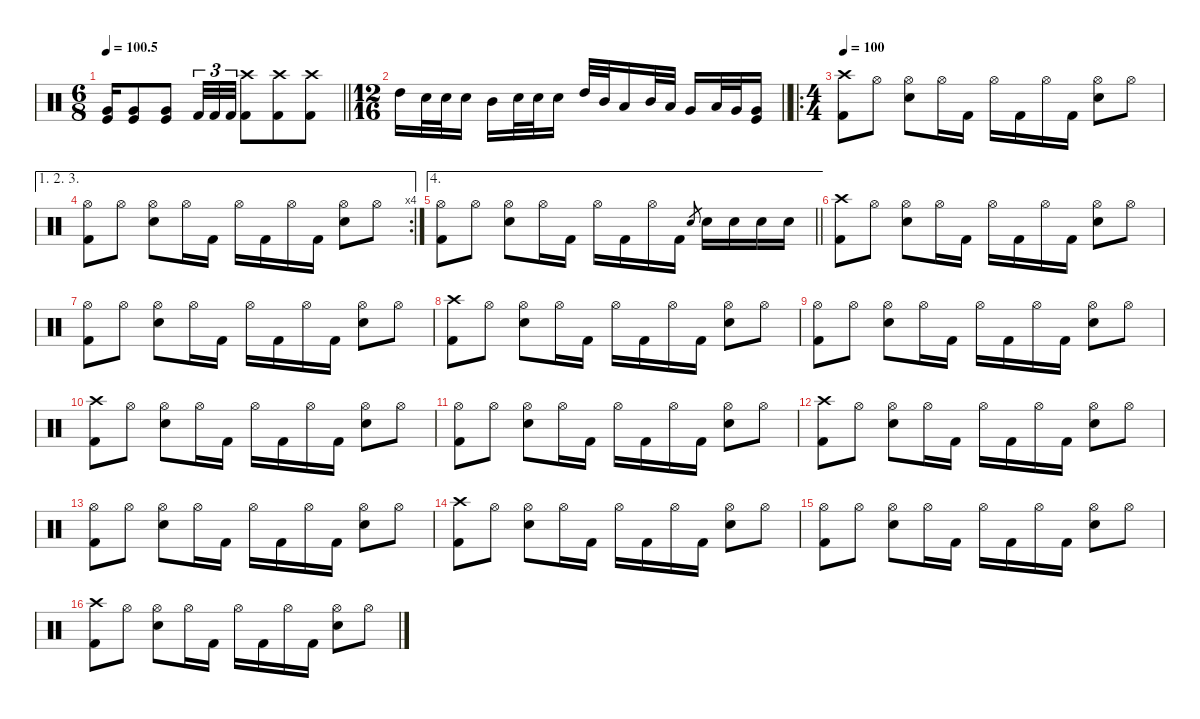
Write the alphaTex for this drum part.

\defaultSystemsLayout 4
\hideDynamics
\bracketExtendMode nobrackets
\singleTrackTrackNamePolicy hidden
\multiTrackTrackNamePolicy hidden
\firstSystemTrackNameMode fullname
\firstSystemTrackNameOrientation horizontal
\otherSystemsTrackNameOrientation horizontal
\track ("Drums" "drm.") {instrument percussion}
\staff {score}
\articulation defaults
\ts (6 8)
\tempo
100.5
\accidentals auto
\clef neutral
\ottava regular
\simile none
\barLineRight lightlight
\ks c
("Very Low Tom (hit)" "Kick (hit)").16{dy ff beam Up} ("Very Low Tom (hit)" "Kick (hit)").8{beam Up} ("Very Low Tom (hit)" "Kick (hit)").8{beam Up} "Kick (hit) 2".32{tu (3 2) dy f beam Up} "Kick (hit) 2".32{tu (3 2) beam Up} "Kick (hit) 2".32{tu (3 2) beam Up} ("Crash high (hit)" "Kick (hit) 2").8{beam Down} ("Crash high (hit)" "Kick (hit) 2").8{beam Down} ("Crash high (hit)" "Kick (hit) 2").8{beam Down} |
\ts (12 16)
\beaming (8 3 3)
\barLineRight lightlight "High Tom (hit)".16{beam Down beam merge} "Snare (hit) 2".32{beam Down beam merge} "Snare (hit) 2".32{dy mf beam Down beam merge} "Snare (hit) 2".16{dy f beam Down beam split} "Mid Tom (hit)".16{dy ff beam Down beam merge} "Snare (hit) 2".32{dy f beam Down beam merge} "Snare (hit) 2".32{dy mf beam Down beam merge} "Snare (hit) 2".16{dy f beam Down} "High Tom (hit)".32{beam Up beam merge} "Mid Tom (hit)".32{dy mf beam Up beam merge} "Low Tom (hit)".16{dy f beam Up} "Mid Tom (hit)".32{beam Up beam merge} "Low Tom (hit)".32{dy mf beam Up beam split} "Very Low Tom (hit)".16{dy f beam Up beam merge} "Low Tom (hit)".32{beam Up beam merge} "Very Low Tom (hit)".32{dy mf beam Up beam merge}
("Very Low Tom (hit)" "Kick (hit)").16{beam Up} |
\ro
\ts (4 4)
\beaming (8 2 2 2 2)
\tempo 100
("Crash high (hit)" "Kick (hit) 2").8{dy f beam Down} "Hi-Hat (open)".8{beam Down} ("Hi-Hat (open)" "Snare (hit) 2").8{beam Down} "Hi-Hat (open)".16{beam Down} "Kick (hit) 2".16{beam Down} "Hi-Hat (open)".16{beam Down} "Kick (hit) 2".16{beam Down} "Hi-Hat (open)".16{beam Down} "Kick (hit) 2".16{beam Down} ("Hi-Hat (open)" "Snare (hit) 2").8{beam Down} "Hi-Hat (open)".8{beam Down} |
\ae (1 2 3)
\rc 4
("Hi-Hat (open)" "Kick (hit) 2").8{beam Down} "Hi-Hat (open)".8{beam Down} ("Hi-Hat (open)" "Snare (hit) 2").8{beam Down} "Hi-Hat (open)".16{beam Down} "Kick (hit) 2".16{beam Down} "Hi-Hat (open)".16{beam Down} "Kick (hit) 2".16{beam Down} "Hi-Hat (open)".16{beam Down} "Kick (hit) 2".16{beam Down} ("Hi-Hat (open)" "Snare (hit) 2").8{beam Down} "Hi-Hat (open)".8{beam Down} |
\ae 4
\barLineRight lightlight
("Hi-Hat (open)" "Kick (hit) 2").8{beam Down} "Hi-Hat (open)".8{beam Down} ("Hi-Hat (open)" "Snare (hit) 2").8{beam Down} "Hi-Hat (open)".16{beam Down} "Kick (hit) 2".16{beam Down} "Hi-Hat (open)".16{beam Down} "Kick (hit) 2".16{beam Down} "Hi-Hat (open)".16{beam Down} "Kick (hit) 2".16{beam Down} "Electric Snare (hit)".8{gr dy mf beam Up} "Snare (hit) 2".16{dy f beam Down} "Snare (hit) 2".16{beam Down} "Snare (hit) 2".16{beam Down} "Snare (hit) 2".16{beam Down} |
("Crash high (hit)" "Kick (hit) 2").8{beam Down} "Hi-Hat (open)".8{beam Down} ("Hi-Hat (open)" "Snare (hit) 2").8{beam Down} "Hi-Hat (open)".16{beam Down} "Kick (hit) 2".16{beam Down} "Hi-Hat (open)".16{beam Down} "Kick (hit) 2".16{beam Down} "Hi-Hat (open)".16{beam Down} "Kick (hit) 2".16{beam Down} ("Hi-Hat (open)" "Snare (hit) 2").8{beam Down} "Hi-Hat (open)".8{beam Down} |
("Hi-Hat (open)" "Kick (hit) 2").8{beam Down beam merge} "Hi-Hat (open)".8{beam Down beam split} ("Hi-Hat (open)" "Snare (hit) 2").8{beam Down beam merge} "Hi-Hat (open)".16{beam Down beam merge} "Kick (hit) 2".16{beam Down beam split} "Hi-Hat (open)".16{beam Down beam merge} "Kick (hit) 2".16{beam Down beam merge} "Hi-Hat (open)".16{beam Down beam merge} "Kick (hit) 2".16{beam Down beam split} ("Hi-Hat (open)" "Snare (hit) 2").8{beam Down beam merge} "Hi-Hat (open)".8{beam Down} |
("Crash high (hit)" "Kick (hit) 2").8{beam Down} "Hi-Hat (open)".8{beam Down} ("Hi-Hat (open)" "Snare (hit) 2").8{beam Down} "Hi-Hat (open)".16{beam Down} "Kick (hit) 2".16{beam Down} "Hi-Hat (open)".16{beam Down} "Kick (hit) 2".16{beam Down} "Hi-Hat (open)".16{beam Down} "Kick (hit) 2".16{beam Down} ("Hi-Hat (open)" "Snare (hit) 2").8{beam Down} "Hi-Hat (open)".8{beam Down} |
("Hi-Hat (open)" "Kick (hit) 2").8{beam Down beam merge} "Hi-Hat (open)".8{beam Down beam split} ("Hi-Hat (open)" "Snare (hit) 2").8{beam Down beam merge} "Hi-Hat (open)".16{beam Down beam merge} "Kick (hit) 2".16{beam Down beam split} "Hi-Hat (open)".16{beam Down beam merge} "Kick (hit) 2".16{beam Down beam merge} "Hi-Hat (open)".16{beam Down beam merge} "Kick (hit) 2".16{beam Down beam split} ("Hi-Hat (open)" "Snare (hit) 2").8{beam Down beam merge} "Hi-Hat (open)".8{beam Down} |
("Crash high (hit)" "Kick (hit) 2").8{beam Down} "Hi-Hat (open)".8{beam Down} ("Hi-Hat (open)" "Snare (hit) 2").8{beam Down} "Hi-Hat (open)".16{beam Down} "Kick (hit) 2".16{beam Down} "Hi-Hat (open)".16{beam Down} "Kick (hit) 2".16{beam Down} "Hi-Hat (open)".16{beam Down} "Kick (hit) 2".16{beam Down} ("Hi-Hat (open)" "Snare (hit) 2").8{beam Down} "Hi-Hat (open)".8{beam Down} |
("Hi-Hat (open)" "Kick (hit) 2").8{beam Down beam merge} "Hi-Hat (open)".8{beam Down beam split} ("Hi-Hat (open)" "Snare (hit) 2").8{beam Down beam merge} "Hi-Hat (open)".16{beam Down beam merge} "Kick (hit) 2".16{beam Down beam split} "Hi-Hat (open)".16{beam Down beam merge} "Kick (hit) 2".16{beam Down beam merge} "Hi-Hat (open)".16{beam Down beam merge} "Kick (hit) 2".16{beam Down beam split} ("Hi-Hat (open)" "Snare (hit) 2").8{beam Down beam merge} "Hi-Hat (open)".8{beam Down} |
("Crash high (hit)" "Kick (hit) 2").8{beam Down} "Hi-Hat (open)".8{beam Down} ("Hi-Hat (open)" "Snare (hit) 2").8{beam Down} "Hi-Hat (open)".16{beam Down} "Kick (hit) 2".16{beam Down} "Hi-Hat (open)".16{beam Down} "Kick (hit) 2".16{beam Down} "Hi-Hat (open)".16{beam Down} "Kick (hit) 2".16{beam Down} ("Hi-Hat (open)" "Snare (hit) 2").8{beam Down} "Hi-Hat (open)".8{beam Down} |
("Hi-Hat (open)" "Kick (hit) 2").8{beam Down beam merge} "Hi-Hat (open)".8{beam Down beam split} ("Hi-Hat (open)" "Snare (hit) 2").8{beam Down beam merge} "Hi-Hat (open)".16{beam Down beam merge} "Kick (hit) 2".16{beam Down beam split} "Hi-Hat (open)".16{beam Down beam merge} "Kick (hit) 2".16{beam Down beam merge} "Hi-Hat (open)".16{beam Down beam merge} "Kick (hit) 2".16{beam Down beam split} ("Hi-Hat (open)" "Snare (hit) 2").8{beam Down beam merge} "Hi-Hat (open)".8{beam Down} |
("Crash high (hit)" "Kick (hit) 2").8{beam Down} "Hi-Hat (open)".8{beam Down} ("Hi-Hat (open)" "Snare (hit) 2").8{beam Down} "Hi-Hat (open)".16{beam Down} "Kick (hit) 2".16{beam Down} "Hi-Hat (open)".16{beam Down} "Kick (hit) 2".16{beam Down} "Hi-Hat (open)".16{beam Down} "Kick (hit) 2".16{beam Down} ("Hi-Hat (open)" "Snare (hit) 2").8{beam Down} "Hi-Hat (open)".8{beam Down} |
("Hi-Hat (open)" "Kick (hit) 2").8{beam Down beam merge} "Hi-Hat (open)".8{beam Down beam split} ("Hi-Hat (open)" "Snare (hit) 2").8{beam Down beam merge} "Hi-Hat (open)".16{beam Down beam merge} "Kick (hit) 2".16{beam Down beam split} "Hi-Hat (open)".16{beam Down beam merge} "Kick (hit) 2".16{beam Down beam merge} "Hi-Hat (open)".16{beam Down beam merge} "Kick (hit) 2".16{beam Down beam split} ("Hi-Hat (open)" "Snare (hit) 2").8{beam Down beam merge} "Hi-Hat (open)".8{beam Down} |
("Crash high (hit)" "Kick (hit) 2").8{beam Down} "Hi-Hat (open)".8{beam Down} ("Hi-Hat (open)" "Snare (hit) 2").8{beam Down} "Hi-Hat (open)".16{beam Down} "Kick (hit) 2".16{beam Down} "Hi-Hat (open)".16{beam Down} "Kick (hit) 2".16{beam Down} "Hi-Hat (open)".16{beam Down} "Kick (hit) 2".16{beam Down} ("Hi-Hat (open)" "Snare (hit) 2").8{beam Down} "Hi-Hat (open)".8{beam Down}
